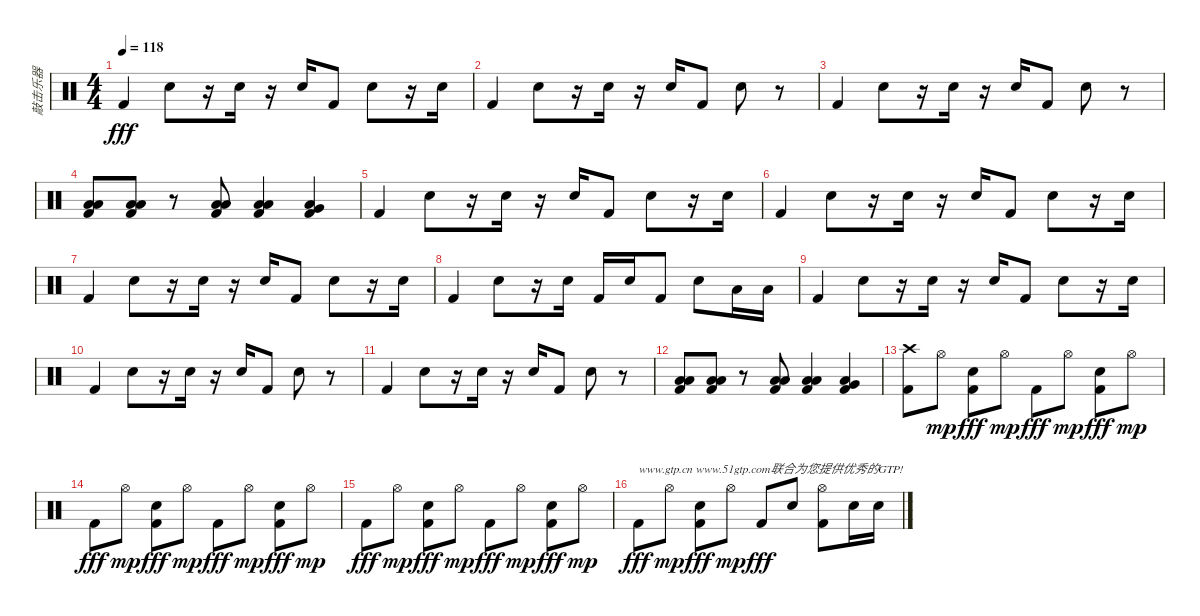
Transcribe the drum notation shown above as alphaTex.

\track ("敲击乐器" "敲击乐器") {instrument percussion}
\staff {score}
\articulation defaults
\ts (4 4)
\tempo 118
\clef neutral
\ks c "Kick (hit) 2".4{dy fff} "Snare (hit) 2".8
r.16 "Snare (hit) 2".16 r.16 "Snare (hit) 2".16 "Kick (hit) 2".8 "Snare (hit) 2".8 r.16 "Snare (hit) 2".16 |
"Kick (hit) 2".4 "Snare (hit) 2".8 r.16 "Snare (hit) 2".16 r.16 "Snare (hit) 2".16 "Kick (hit) 2".8 "Snare (hit) 2".8 r.8 |
"Kick (hit) 2".4 "Snare (hit) 2".8 r.16 "Snare (hit) 2".16 r.16 "Snare (hit) 2".16 "Kick (hit) 2".8 "Snare (hit) 2".8 r.8 |
("Low Tom (hit)" "Low Tom (hit)" "Kick (hit) 2").8 ("Low Tom (hit)" "Low Tom (hit)" "Kick (hit) 2").8 r.8 ("Low Tom (hit)" "Low Tom (hit)" "Kick (hit) 2").8 ("Low Tom (hit)" "Low Tom (hit)" "Kick (hit) 2").4 ("Very Low Tom (hit)" "Low Floor Tom (hit)" "Kick (hit) 2").4 |
"Kick (hit) 2".4 "Snare (hit) 2".8 r.16 "Snare (hit) 2".16 r.16 "Snare (hit) 2".16 "Kick (hit) 2".8 "Snare (hit) 2".8 r.16 "Snare (hit) 2".16 |
"Kick (hit) 2".4 "Snare (hit) 2".8 r.16 "Snare (hit) 2".16 r.16 "Snare (hit) 2".16 "Kick (hit) 2".8 "Snare (hit) 2".8 r.16 "Snare (hit) 2".16 |
"Kick (hit) 2".4 "Snare (hit) 2".8 r.16 "Snare (hit) 2".16 r.16 "Snare (hit) 2".16 "Kick (hit) 2".8 "Snare (hit) 2".8 r.16 "Snare (hit) 2".16 |
"Kick (hit) 2".4 "Snare (hit) 2".8 r.16 "Snare (hit) 2".16 "Kick (hit) 2".16 "Snare (hit) 2".16 "Kick (hit) 2".8 "Snare (hit) 2".8 "Low Tom (hit)".16 "Low Floor Tom (hit)".16 |
"Kick (hit) 2".4 "Snare (hit) 2".8 r.16 "Snare (hit) 2".16 r.16 "Snare (hit) 2".16 "Kick (hit) 2".8 "Snare (hit) 2".8 r.16 "Snare (hit) 2".16 |
"Kick (hit) 2".4 "Snare (hit) 2".8 r.16 "Snare (hit) 2".16 r.16 "Snare (hit) 2".16 "Kick (hit) 2".8 "Snare (hit) 2".8 r.8 |
"Kick (hit) 2".4 "Snare (hit) 2".8 r.16 "Snare (hit) 2".16 r.16 "Snare (hit) 2".16 "Kick (hit) 2".8 "Snare (hit) 2".8 r.8 |
("Low Tom (hit)" "Low Tom (hit)" "Kick (hit) 2").8 ("Low Tom (hit)" "Low Tom (hit)" "Kick (hit) 2").8 r.8 ("Low Tom (hit)" "Low Tom (hit)" "Kick (hit) 2").8 ("Low Tom (hit)" "Low Tom (hit)" "Kick (hit) 2").4 ("Very Low Tom (hit)" "Low Floor Tom (hit)" "Kick (hit) 2").4 |
("Crash high (hit)" "Kick (hit) 2").8 "Hi-Hat (open)".8{dy mp} ("Snare (hit) 2" "Kick (hit) 2").8{dy fff} "Hi-Hat (open)".8{dy mp} "Kick (hit) 2".8{dy fff} "Hi-Hat (open)".8{dy mp} ("Snare (hit) 2" "Kick (hit) 2").8{dy fff} "Hi-Hat (open)".8{dy mp} |
"Kick (hit) 2".8{dy fff} "Hi-Hat (open)".8{dy mp} ("Snare (hit) 2" "Kick (hit) 2").8{dy fff} "Hi-Hat (open)".8{dy mp} "Kick (hit) 2".8{dy fff} "Hi-Hat (open)".8{dy mp} ("Snare (hit) 2" "Kick (hit) 2").8{dy fff} "Hi-Hat (open)".8{dy mp} |
"Kick (hit) 2".8{dy fff} "Hi-Hat (open)".8{dy mp} ("Snare (hit) 2" "Kick (hit) 2").8{dy fff} "Hi-Hat (open)".8{dy mp} "Kick (hit) 2".8{dy fff} "Hi-Hat (open)".8{dy mp} ("Snare (hit) 2" "Kick (hit) 2").8{dy fff} "Hi-Hat (open)".8{dy mp} |
"Kick (hit) 2".8{txt "www.gtp.cn www.51gtp.com联合为您提供优秀的GTP!" dy fff} "Hi-Hat (open)".8{dy mp} ("Snare (hit) 2" "Kick (hit) 2").8{dy fff} "Hi-Hat (open)".8{dy mp} "Kick (hit) 2".8{dy fff} "Snare (hit) 2".8 ("Hi-Hat (open)" "Kick (hit) 2").8 "Snare (hit) 2".16 "Snare (hit) 2".16
